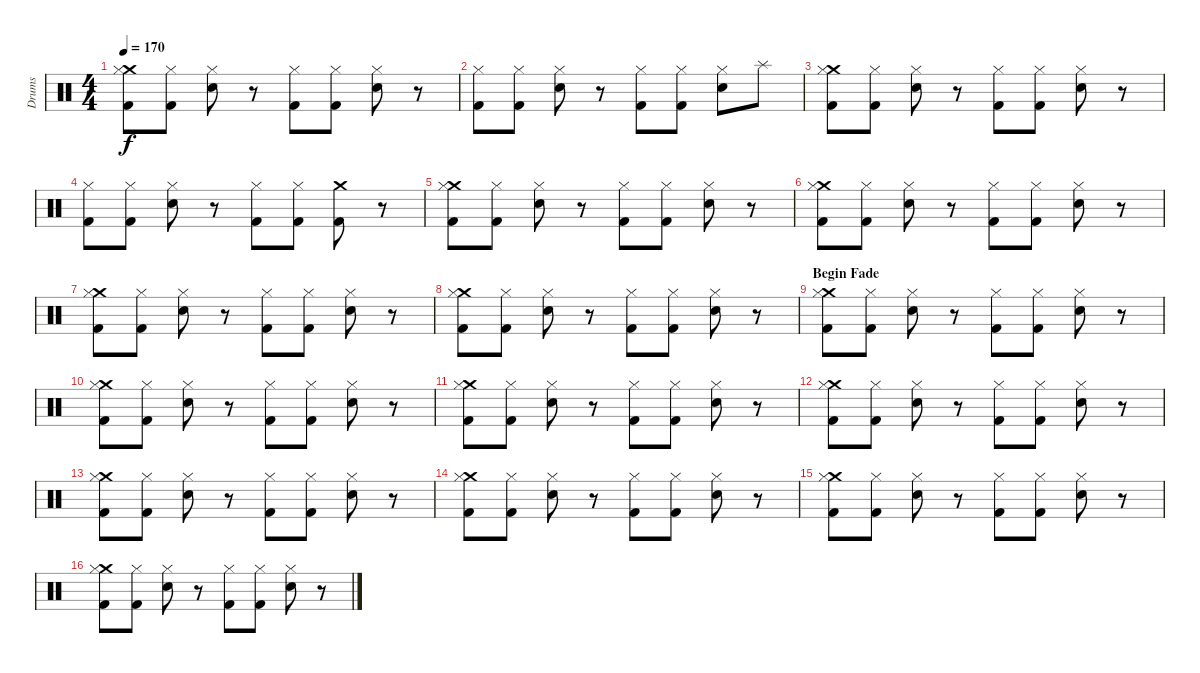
\track ("Drums" "Drums") {instrument percussion}
\staff {score}
\articulation defaults
\ts (4 4)
\section ("" "")
\tempo 170
\clef neutral
\ks c
("Crash medium (hit)" "Hi-Hat (closed)" "Kick (hit) 2").8{dy f} ("Hi-Hat (closed)" "Kick (hit) 2").8 ("Hi-Hat (closed)" "Snare (hit) 2").8 r.8 ("Hi-Hat (closed)" "Kick (hit) 2").8 ("Hi-Hat (closed)" "Kick (hit) 2").8 ("Hi-Hat (closed)" "Snare (hit) 2").8 r.8 |
("Hi-Hat (closed)" "Kick (hit) 2").8 ("Hi-Hat (closed)" "Kick (hit) 2").8 ("Hi-Hat (closed)" "Snare (hit) 2").8 r.8 ("Hi-Hat (closed)" "Kick (hit) 2").8 ("Hi-Hat (closed)" "Kick (hit) 2").8 ("Hi-Hat (closed)" "Snare (hit) 2").8 "Splash (hit)".8 |
("Crash medium (hit)" "Hi-Hat (closed)" "Kick (hit) 2").8 ("Hi-Hat (closed)" "Kick (hit) 2").8 ("Hi-Hat (closed)" "Snare (hit) 2").8 r.8 ("Hi-Hat (closed)" "Kick (hit) 2").8 ("Hi-Hat (closed)" "Kick (hit) 2").8 ("Hi-Hat (closed)" "Snare (hit) 2").8 r.8 |
("Hi-Hat (closed)" "Kick (hit) 2").8 ("Hi-Hat (closed)" "Kick (hit) 2").8 ("Hi-Hat (closed)" "Snare (hit) 2").8 r.8 ("Hi-Hat (closed)" "Kick (hit) 2").8 ("Hi-Hat (closed)" "Kick (hit) 2").8 ("Crash medium (hit)" "Kick (hit) 2").8 r.8 |
("Crash medium (hit)" "Hi-Hat (closed)" "Kick (hit) 2").8 ("Hi-Hat (closed)" "Kick (hit) 2").8 ("Hi-Hat (closed)" "Snare (hit) 2").8 r.8 ("Hi-Hat (closed)" "Kick (hit) 2").8 ("Hi-Hat (closed)" "Kick (hit) 2").8 ("Hi-Hat (closed)" "Snare (hit) 2").8 r.8 |
("Crash medium (hit)" "Hi-Hat (closed)" "Kick (hit) 2").8 ("Hi-Hat (closed)" "Kick (hit) 2").8 ("Hi-Hat (closed)" "Snare (hit) 2").8 r.8 ("Hi-Hat (closed)" "Kick (hit) 2").8 ("Hi-Hat (closed)" "Kick (hit) 2").8 ("Hi-Hat (closed)" "Snare (hit) 2").8 r.8 |
("Crash medium (hit)" "Hi-Hat (closed)" "Kick (hit) 2").8 ("Hi-Hat (closed)" "Kick (hit) 2").8 ("Hi-Hat (closed)" "Snare (hit) 2").8 r.8 ("Hi-Hat (closed)" "Kick (hit) 2").8 ("Hi-Hat (closed)" "Kick (hit) 2").8 ("Hi-Hat (closed)" "Snare (hit) 2").8 r.8 |
("Crash medium (hit)" "Hi-Hat (closed)" "Kick (hit) 2").8 ("Hi-Hat (closed)" "Kick (hit) 2").8 ("Hi-Hat (closed)" "Snare (hit) 2").8 r.8 ("Hi-Hat (closed)" "Kick (hit) 2").8 ("Hi-Hat (closed)" "Kick (hit) 2").8 ("Hi-Hat (closed)" "Snare (hit) 2").8 r.8 |
\section ("" "Begin Fade")
("Crash medium (hit)" "Hi-Hat (closed)" "Kick (hit) 2").8 ("Hi-Hat (closed)" "Kick (hit) 2").8 ("Hi-Hat (closed)" "Snare (hit) 2").8 r.8 ("Hi-Hat (closed)" "Kick (hit) 2").8 ("Hi-Hat (closed)" "Kick (hit) 2").8 ("Hi-Hat (closed)" "Snare (hit) 2").8 r.8 |
("Crash medium (hit)" "Hi-Hat (closed)" "Kick (hit) 2").8 ("Hi-Hat (closed)" "Kick (hit) 2").8 ("Hi-Hat (closed)" "Snare (hit) 2").8 r.8 ("Hi-Hat (closed)" "Kick (hit) 2").8 ("Hi-Hat (closed)" "Kick (hit) 2").8 ("Hi-Hat (closed)" "Snare (hit) 2").8 r.8 |
("Crash medium (hit)" "Hi-Hat (closed)" "Kick (hit) 2").8 ("Hi-Hat (closed)" "Kick (hit) 2").8 ("Hi-Hat (closed)" "Snare (hit) 2").8 r.8 ("Hi-Hat (closed)" "Kick (hit) 2").8 ("Hi-Hat (closed)" "Kick (hit) 2").8 ("Hi-Hat (closed)" "Snare (hit) 2").8 r.8 |
("Crash medium (hit)" "Hi-Hat (closed)" "Kick (hit) 2").8 ("Hi-Hat (closed)" "Kick (hit) 2").8 ("Hi-Hat (closed)" "Snare (hit) 2").8 r.8 ("Hi-Hat (closed)" "Kick (hit) 2").8 ("Hi-Hat (closed)" "Kick (hit) 2").8 ("Hi-Hat (closed)" "Snare (hit) 2").8 r.8 |
("Crash medium (hit)" "Hi-Hat (closed)" "Kick (hit) 2").8 ("Hi-Hat (closed)" "Kick (hit) 2").8 ("Hi-Hat (closed)" "Snare (hit) 2").8 r.8 ("Hi-Hat (closed)" "Kick (hit) 2").8 ("Hi-Hat (closed)" "Kick (hit) 2").8 ("Hi-Hat (closed)" "Snare (hit) 2").8 r.8 |
("Crash medium (hit)" "Hi-Hat (closed)" "Kick (hit) 2").8 ("Hi-Hat (closed)" "Kick (hit) 2").8 ("Hi-Hat (closed)" "Snare (hit) 2").8 r.8 ("Hi-Hat (closed)" "Kick (hit) 2").8 ("Hi-Hat (closed)" "Kick (hit) 2").8 ("Hi-Hat (closed)" "Snare (hit) 2").8 r.8 |
("Crash medium (hit)" "Hi-Hat (closed)" "Kick (hit) 2").8 ("Hi-Hat (closed)" "Kick (hit) 2").8 ("Hi-Hat (closed)" "Snare (hit) 2").8 r.8 ("Hi-Hat (closed)" "Kick (hit) 2").8 ("Hi-Hat (closed)" "Kick (hit) 2").8 ("Hi-Hat (closed)" "Snare (hit) 2").8 r.8 |
("Crash medium (hit)" "Hi-Hat (closed)" "Kick (hit) 2").8 ("Hi-Hat (closed)" "Kick (hit) 2").8 ("Hi-Hat (closed)" "Snare (hit) 2").8 r.8 ("Hi-Hat (closed)" "Kick (hit) 2").8 ("Hi-Hat (closed)" "Kick (hit) 2").8 ("Hi-Hat (closed)" "Snare (hit) 2").8 r.8
